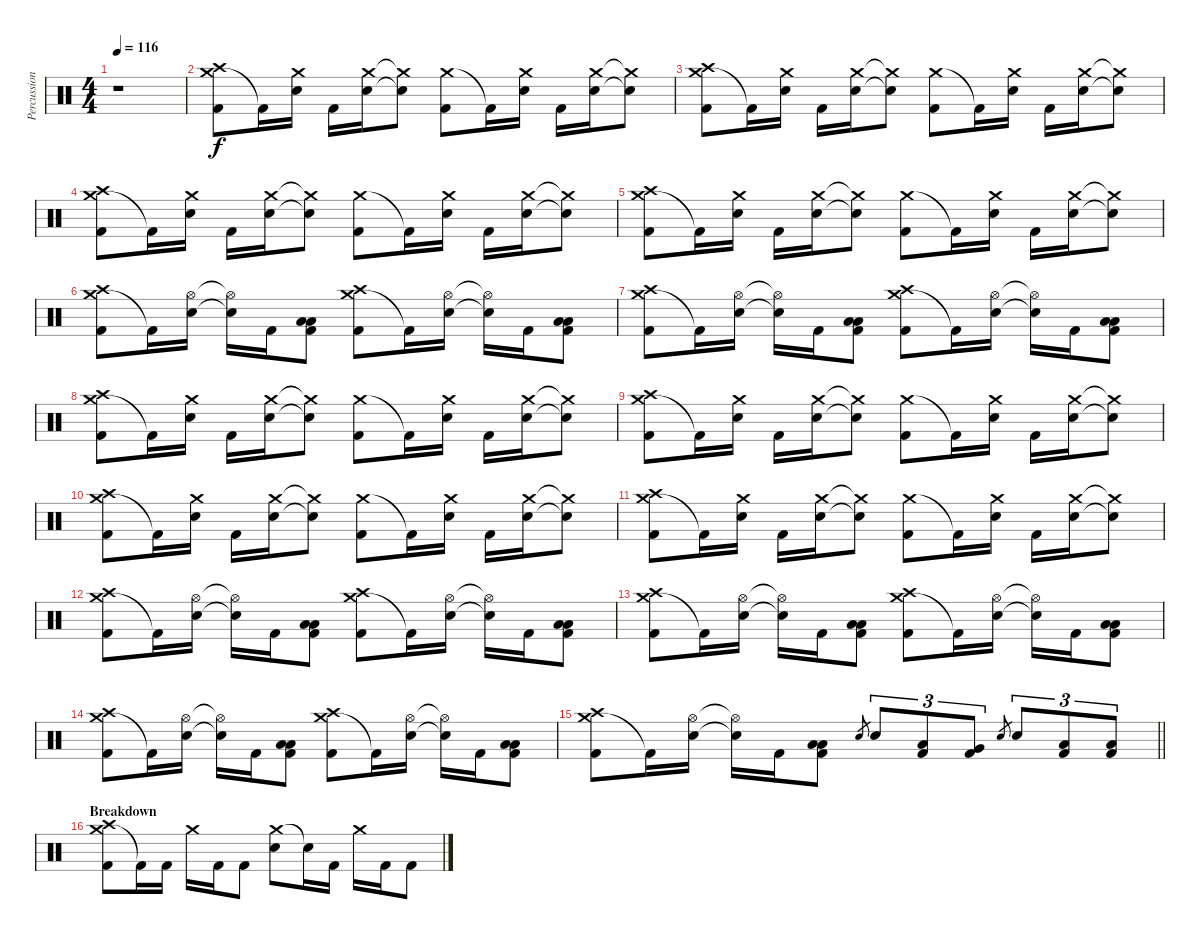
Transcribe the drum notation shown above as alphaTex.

\track ("Percussion" "Percussion") {instrument percussion}
\staff {score}
\articulation defaults
\ts (4 4)
\tempo 116
\clef neutral
\ks c
r.1{dy f} |
("Crash medium (hit)" "Crash high (hit)" "Kick (hit) 2").8 "Kick (hit) 2"{t}.16 ("Crash medium (hit)" "Electric Snare (hit)").16 "Kick (hit) 2".16 ("Crash medium (hit)" "Electric Snare (hit)").16 ("Crash medium (hit)"{t} "Electric Snare (hit)"{t}).8 ("Crash medium (hit)" "Kick (hit) 2").8 "Kick (hit) 2"{t}.16 ("Crash medium (hit)" "Electric Snare (hit)").16 "Kick (hit) 2".16 ("Crash medium (hit)" "Electric Snare (hit)").16 ("Crash medium (hit)"{t} "Electric Snare (hit)"{t}).8 |
("Crash medium (hit)" "Crash high (hit)" "Kick (hit) 2").8 "Kick (hit) 2"{t}.16 ("Crash medium (hit)" "Electric Snare (hit)").16 "Kick (hit) 2".16 ("Crash medium (hit)" "Electric Snare (hit)").16 ("Crash medium (hit)"{t} "Electric Snare (hit)"{t}).8 ("Crash medium (hit)" "Kick (hit) 2").8 "Kick (hit) 2"{t}.16 ("Crash medium (hit)" "Electric Snare (hit)").16 "Kick (hit) 2".16 ("Crash medium (hit)" "Electric Snare (hit)").16 ("Crash medium (hit)"{t} "Electric Snare (hit)"{t}).8 |
("Crash medium (hit)" "Crash high (hit)" "Kick (hit) 2").8 "Kick (hit) 2"{t}.16 ("Crash medium (hit)" "Electric Snare (hit)").16 "Kick (hit) 2".16 ("Crash medium (hit)" "Electric Snare (hit)").16 ("Crash medium (hit)"{t} "Electric Snare (hit)"{t}).8 ("Crash medium (hit)" "Kick (hit) 2").8 "Kick (hit) 2"{t}.16 ("Crash medium (hit)" "Electric Snare (hit)").16 "Kick (hit) 2".16 ("Crash medium (hit)" "Electric Snare (hit)").16 ("Crash medium (hit)"{t} "Electric Snare (hit)"{t}).8 |
("Crash medium (hit)" "Crash high (hit)" "Kick (hit) 2").8 "Kick (hit) 2"{t}.16 ("Crash medium (hit)" "Electric Snare (hit)").16 "Kick (hit) 2".16 ("Crash medium (hit)" "Electric Snare (hit)").16 ("Crash medium (hit)"{t} "Electric Snare (hit)"{t}).8 ("Crash medium (hit)" "Kick (hit) 2").8 "Kick (hit) 2"{t}.16 ("Crash medium (hit)" "Electric Snare (hit)").16 "Kick (hit) 2".16 ("Crash medium (hit)" "Electric Snare (hit)").16 ("Crash medium (hit)"{t} "Electric Snare (hit)"{t}).8 |
("Crash medium (hit)" "Crash high (hit)" "Kick (hit) 2").8 "Kick (hit) 2"{t}.16 ("Hi-Hat (open)" "Electric Snare (hit)").16 ("Hi-Hat (open)"{t} "Electric Snare (hit)"{t}).16 "Kick (hit) 2".16 ("Low Tom (hit)" "Low Floor Tom (hit)" "Kick (hit) 2").8 ("Crash medium (hit)" "Crash high (hit)" "Kick (hit) 2").8 "Kick (hit) 2"{t}.16 ("Hi-Hat (open)" "Electric Snare (hit)").16 ("Hi-Hat (open)"{t} "Electric Snare (hit)"{t}).16 "Kick (hit) 2".16 ("Low Tom (hit)" "Low Floor Tom (hit)" "Kick (hit) 2").8 |
("Crash medium (hit)" "Crash high (hit)" "Kick (hit) 2").8 "Kick (hit) 2"{t}.16 ("Hi-Hat (open)" "Electric Snare (hit)").16 ("Hi-Hat (open)"{t} "Electric Snare (hit)"{t}).16 "Kick (hit) 2".16 ("Low Tom (hit)" "Low Floor Tom (hit)" "Kick (hit) 2").8 ("Crash medium (hit)" "Crash high (hit)" "Kick (hit) 2").8 "Kick (hit) 2"{t}.16 ("Hi-Hat (open)" "Electric Snare (hit)").16 ("Hi-Hat (open)"{t} "Electric Snare (hit)"{t}).16 "Kick (hit) 2".16 ("Low Tom (hit)" "Low Floor Tom (hit)" "Kick (hit) 2").8 |
("Crash medium (hit)" "Crash high (hit)" "Kick (hit) 2").8 "Kick (hit) 2"{t}.16 ("Crash medium (hit)" "Electric Snare (hit)").16 "Kick (hit) 2".16 ("Crash medium (hit)" "Electric Snare (hit)").16 ("Crash medium (hit)"{t} "Electric Snare (hit)"{t}).8 ("Crash medium (hit)" "Kick (hit) 2").8 "Kick (hit) 2"{t}.16 ("Crash medium (hit)" "Electric Snare (hit)").16 "Kick (hit) 2".16 ("Crash medium (hit)" "Electric Snare (hit)").16 ("Crash medium (hit)"{t} "Electric Snare (hit)"{t}).8 |
("Crash medium (hit)" "Crash high (hit)" "Kick (hit) 2").8 "Kick (hit) 2"{t}.16 ("Crash medium (hit)" "Electric Snare (hit)").16 "Kick (hit) 2".16 ("Crash medium (hit)" "Electric Snare (hit)").16 ("Crash medium (hit)"{t} "Electric Snare (hit)"{t}).8 ("Crash medium (hit)" "Kick (hit) 2").8 "Kick (hit) 2"{t}.16 ("Crash medium (hit)" "Electric Snare (hit)").16 "Kick (hit) 2".16 ("Crash medium (hit)" "Electric Snare (hit)").16 ("Crash medium (hit)"{t} "Electric Snare (hit)"{t}).8 |
("Crash medium (hit)" "Crash high (hit)" "Kick (hit) 2").8 "Kick (hit) 2"{t}.16 ("Crash medium (hit)" "Electric Snare (hit)").16 "Kick (hit) 2".16 ("Crash medium (hit)" "Electric Snare (hit)").16 ("Crash medium (hit)"{t} "Electric Snare (hit)"{t}).8 ("Crash medium (hit)" "Kick (hit) 2").8 "Kick (hit) 2"{t}.16 ("Crash medium (hit)" "Electric Snare (hit)").16 "Kick (hit) 2".16 ("Crash medium (hit)" "Electric Snare (hit)").16 ("Crash medium (hit)"{t} "Electric Snare (hit)"{t}).8 |
("Crash medium (hit)" "Crash high (hit)" "Kick (hit) 2").8 "Kick (hit) 2"{t}.16 ("Crash medium (hit)" "Electric Snare (hit)").16 "Kick (hit) 2".16 ("Crash medium (hit)" "Electric Snare (hit)").16 ("Crash medium (hit)"{t} "Electric Snare (hit)"{t}).8 ("Crash medium (hit)" "Kick (hit) 2").8 "Kick (hit) 2"{t}.16 ("Crash medium (hit)" "Electric Snare (hit)").16 "Kick (hit) 2".16 ("Crash medium (hit)" "Electric Snare (hit)").16 ("Crash medium (hit)"{t} "Electric Snare (hit)"{t}).8 |
("Crash medium (hit)" "Crash high (hit)" "Kick (hit) 2").8 "Kick (hit) 2"{t}.16 ("Hi-Hat (open)" "Electric Snare (hit)").16 ("Hi-Hat (open)"{t} "Electric Snare (hit)"{t}).16 "Kick (hit) 2".16 ("Low Tom (hit)" "Low Floor Tom (hit)" "Kick (hit) 2").8 ("Crash medium (hit)" "Crash high (hit)" "Kick (hit) 2").8 "Kick (hit) 2"{t}.16 ("Hi-Hat (open)" "Electric Snare (hit)").16 ("Hi-Hat (open)"{t} "Electric Snare (hit)"{t}).16 "Kick (hit) 2".16 ("Low Tom (hit)" "Low Floor Tom (hit)" "Kick (hit) 2").8 |
("Crash medium (hit)" "Crash high (hit)" "Kick (hit) 2").8 "Kick (hit) 2"{t}.16 ("Hi-Hat (open)" "Electric Snare (hit)").16 ("Hi-Hat (open)"{t} "Electric Snare (hit)"{t}).16 "Kick (hit) 2".16 ("Low Tom (hit)" "Low Floor Tom (hit)" "Kick (hit) 2").8 ("Crash medium (hit)" "Crash high (hit)" "Kick (hit) 2").8 "Kick (hit) 2"{t}.16 ("Hi-Hat (open)" "Electric Snare (hit)").16 ("Hi-Hat (open)"{t} "Electric Snare (hit)"{t}).16 "Kick (hit) 2".16 ("Low Tom (hit)" "Low Floor Tom (hit)" "Kick (hit) 2").8 |
("Crash medium (hit)" "Crash high (hit)" "Kick (hit) 2").8 "Kick (hit) 2"{t}.16 ("Hi-Hat (open)" "Electric Snare (hit)").16 ("Hi-Hat (open)"{t} "Electric Snare (hit)"{t}).16 "Kick (hit) 2".16 ("Low Tom (hit)" "Low Floor Tom (hit)" "Kick (hit) 2").8 ("Crash medium (hit)" "Crash high (hit)" "Kick (hit) 2").8 "Kick (hit) 2"{t}.16 ("Hi-Hat (open)" "Electric Snare (hit)").16 ("Hi-Hat (open)"{t} "Electric Snare (hit)"{t}).16 "Kick (hit) 2".16 ("Low Tom (hit)" "Low Floor Tom (hit)" "Kick (hit) 2").8 |
\barLineRight lightlight
("Crash medium (hit)" "Crash high (hit)" "Kick (hit) 2").8 "Kick (hit) 2"{t}.16 ("Hi-Hat (open)" "Electric Snare (hit)").16 ("Hi-Hat (open)"{t} "Electric Snare (hit)"{t}).16 "Kick (hit) 2".16 ("Low Tom (hit)" "Low Floor Tom (hit)" "Kick (hit) 2").8 "Electric Snare (hit)".8{gr} "Electric Snare (hit)".8{tu (3 2)} ("Low Tom (hit)" "Kick (hit) 2").8{tu (3 2)} ("Very Low Tom (hit)" "Kick (hit) 2").8{tu (3 2)} "Electric Snare (hit)".8{gr} "Electric Snare (hit)".8{tu (3 2)} ("Low Tom (hit)" "Kick (hit) 2").8{tu (3 2)} ("Low Floor Tom (hit)" "Kick (hit) 2").8{tu (3 2)} |
\section ("" "Breakdown")
("Crash medium (hit)" "Crash high (hit)" "Kick (hit) 2").8 "Kick (hit) 2"{t}.16 "Kick (hit) 2".16 "Crash medium (hit)".16 "Kick (hit) 2".16 "Kick (hit) 2".8 ("Crash medium (hit)" "Electric Snare (hit)").8 "Electric Snare (hit)"{t}.16 "Kick (hit) 2".16 "Crash medium (hit)".16 "Kick (hit) 2".16 "Kick (hit) 2".8
